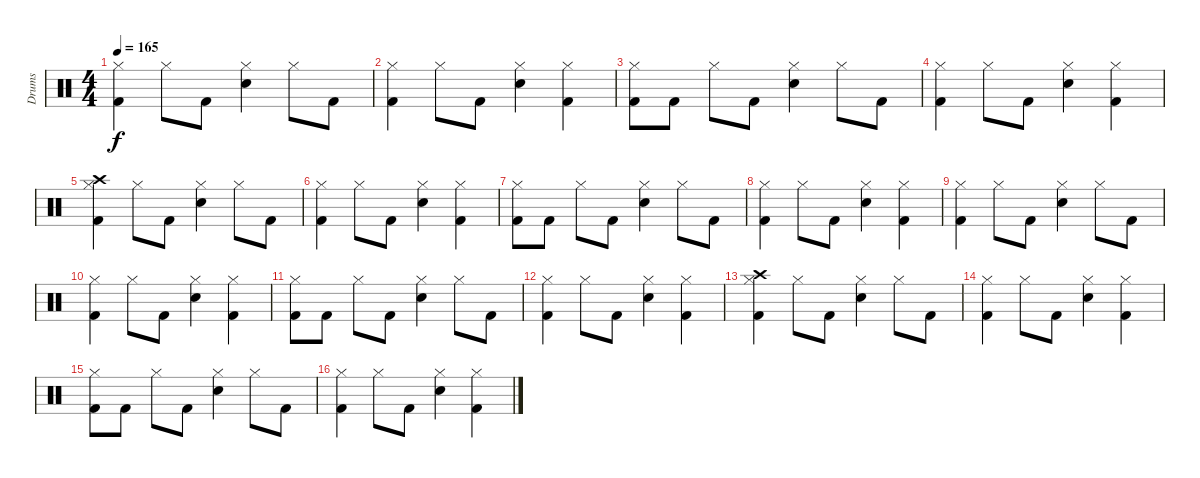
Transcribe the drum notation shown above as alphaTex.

\track ("Drums" "Drums") {instrument percussion}
\staff {score}
\articulation defaults
\ts (4 4)
\tempo 165
\clef neutral
\ks c
("Hi-Hat (closed)" "Kick (hit) 2").4{dy f} "Hi-Hat (closed)".8 "Kick (hit) 2".8 ("Hi-Hat (closed)" "Electric Snare (hit)").4 "Hi-Hat (closed)".8 "Kick (hit) 2".8 |
("Hi-Hat (closed)" "Kick (hit) 2").4 "Hi-Hat (closed)".8 "Kick (hit) 2".8 ("Hi-Hat (closed)" "Electric Snare (hit)").4 ("Hi-Hat (closed)" "Kick (hit) 2").4 |
("Hi-Hat (closed)" "Kick (hit) 2").8 "Kick (hit) 2".8 "Hi-Hat (closed)".8 "Kick (hit) 2".8 ("Hi-Hat (closed)" "Electric Snare (hit)").4 "Hi-Hat (closed)".8 "Kick (hit) 2".8 |
("Hi-Hat (closed)" "Kick (hit) 2").4 "Hi-Hat (closed)".8 "Kick (hit) 2".8 ("Hi-Hat (closed)" "Electric Snare (hit)").4 ("Hi-Hat (closed)" "Kick (hit) 2").4 |
("Crash high (hit)" "Hi-Hat (closed)" "Kick (hit) 2").4 "Hi-Hat (closed)".8 "Kick (hit) 2".8 ("Hi-Hat (closed)" "Electric Snare (hit)").4 "Hi-Hat (closed)".8 "Kick (hit) 2".8 |
("Hi-Hat (closed)" "Kick (hit) 2").4 "Hi-Hat (closed)".8 "Kick (hit) 2".8 ("Hi-Hat (closed)" "Electric Snare (hit)").4 ("Hi-Hat (closed)" "Kick (hit) 2").4 |
("Hi-Hat (closed)" "Kick (hit) 2").8 "Kick (hit) 2".8 "Hi-Hat (closed)".8 "Kick (hit) 2".8 ("Hi-Hat (closed)" "Electric Snare (hit)").4 "Hi-Hat (closed)".8 "Kick (hit) 2".8 |
("Hi-Hat (closed)" "Kick (hit) 2").4 "Hi-Hat (closed)".8 "Kick (hit) 2".8 ("Hi-Hat (closed)" "Electric Snare (hit)").4 ("Hi-Hat (closed)" "Kick (hit) 2").4 |
("Hi-Hat (closed)" "Kick (hit) 2").4 "Hi-Hat (closed)".8 "Kick (hit) 2".8 ("Hi-Hat (closed)" "Electric Snare (hit)").4 "Hi-Hat (closed)".8 "Kick (hit) 2".8 |
("Hi-Hat (closed)" "Kick (hit) 2").4 "Hi-Hat (closed)".8 "Kick (hit) 2".8 ("Hi-Hat (closed)" "Electric Snare (hit)").4 ("Hi-Hat (closed)" "Kick (hit) 2").4 |
("Hi-Hat (closed)" "Kick (hit) 2").8 "Kick (hit) 2".8 "Hi-Hat (closed)".8 "Kick (hit) 2".8 ("Hi-Hat (closed)" "Electric Snare (hit)").4 "Hi-Hat (closed)".8 "Kick (hit) 2".8 |
("Hi-Hat (closed)" "Kick (hit) 2").4 "Hi-Hat (closed)".8 "Kick (hit) 2".8 ("Hi-Hat (closed)" "Electric Snare (hit)").4 ("Hi-Hat (closed)" "Kick (hit) 2").4 |
("Crash high (hit)" "Hi-Hat (closed)" "Kick (hit) 2").4 "Hi-Hat (closed)".8 "Kick (hit) 2".8 ("Hi-Hat (closed)" "Electric Snare (hit)").4 "Hi-Hat (closed)".8 "Kick (hit) 2".8 |
("Hi-Hat (closed)" "Kick (hit) 2").4 "Hi-Hat (closed)".8 "Kick (hit) 2".8 ("Hi-Hat (closed)" "Electric Snare (hit)").4 ("Hi-Hat (closed)" "Kick (hit) 2").4 |
("Hi-Hat (closed)" "Kick (hit) 2").8 "Kick (hit) 2".8 "Hi-Hat (closed)".8 "Kick (hit) 2".8 ("Hi-Hat (closed)" "Electric Snare (hit)").4 "Hi-Hat (closed)".8 "Kick (hit) 2".8 |
("Hi-Hat (closed)" "Kick (hit) 2").4 "Hi-Hat (closed)".8 "Kick (hit) 2".8 ("Hi-Hat (closed)" "Electric Snare (hit)").4 ("Hi-Hat (closed)" "Kick (hit) 2").4
